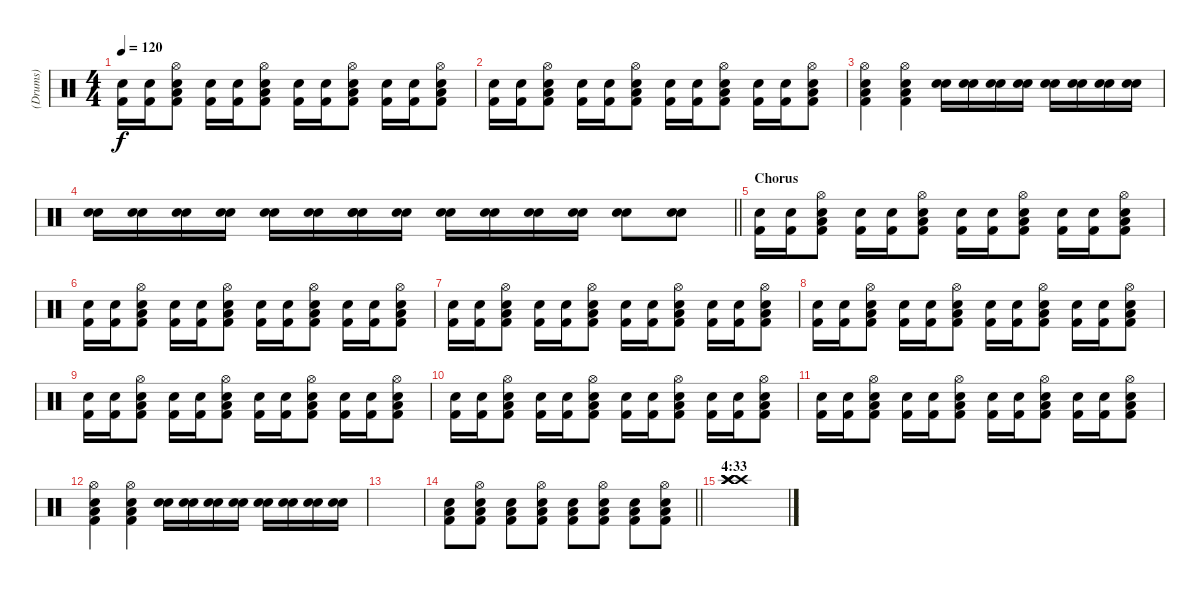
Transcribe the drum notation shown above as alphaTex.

\track ("(Drums)" "(Drums)") {instrument percussion}
\staff {score}
\articulation defaults
\ts (4 4)
\tempo 120
\clef neutral
\ks c
("Kick (hit) 2" "Electric Snare (hit)").16{dy f} ("Kick (hit) 2" "Electric Snare (hit)").16 ("Kick (hit) 2" "Electric Snare (hit)" "Low Floor Tom (hit)" "Hi-Hat (open)").8 ("Kick (hit) 2" "Electric Snare (hit)").16 ("Kick (hit) 2" "Electric Snare (hit)").16 ("Kick (hit) 2" "Electric Snare (hit)" "Low Floor Tom (hit)" "Hi-Hat (open)").8 ("Kick (hit) 2" "Electric Snare (hit)").16 ("Kick (hit) 2" "Electric Snare (hit)").16 ("Kick (hit) 2" "Electric Snare (hit)" "Low Floor Tom (hit)" "Hi-Hat (open)").8 ("Kick (hit) 2" "Electric Snare (hit)").16 ("Kick (hit) 2" "Electric Snare (hit)").16 ("Kick (hit) 2" "Electric Snare (hit)" "Low Floor Tom (hit)" "Hi-Hat (open)").8 |
("Kick (hit) 2" "Electric Snare (hit)").16 ("Kick (hit) 2" "Electric Snare (hit)").16 ("Kick (hit) 2" "Electric Snare (hit)" "Low Floor Tom (hit)" "Hi-Hat (open)").8 ("Kick (hit) 2" "Electric Snare (hit)").16 ("Kick (hit) 2" "Electric Snare (hit)").16 ("Kick (hit) 2" "Electric Snare (hit)" "Low Floor Tom (hit)" "Hi-Hat (open)").8 ("Kick (hit) 2" "Electric Snare (hit)").16 ("Kick (hit) 2" "Electric Snare (hit)").16 ("Kick (hit) 2" "Electric Snare (hit)" "Low Floor Tom (hit)" "Hi-Hat (open)").8 ("Kick (hit) 2" "Electric Snare (hit)").16 ("Kick (hit) 2" "Electric Snare (hit)").16 ("Kick (hit) 2" "Electric Snare (hit)" "Low Floor Tom (hit)" "Hi-Hat (open)").8 |
("Kick (hit) 2" "Electric Snare (hit)" "Low Floor Tom (hit)" "Hi-Hat (open)").4 ("Kick (hit) 2" "Electric Snare (hit)" "Low Floor Tom (hit)" "Hi-Hat (open)").4 ("Electric Snare (hit)" "Electric Snare (hit)").16 ("Electric Snare (hit)" "Electric Snare (hit)").16 ("Electric Snare (hit)" "Electric Snare (hit)").16 ("Electric Snare (hit)" "Electric Snare (hit)").16 ("Electric Snare (hit)" "Electric Snare (hit)").16 ("Electric Snare (hit)" "Electric Snare (hit)").16 ("Electric Snare (hit)" "Electric Snare (hit)").16 ("Electric Snare (hit)" "Electric Snare (hit)").16 |
\barLineRight lightlight
("Electric Snare (hit)" "Electric Snare (hit)").16 ("Electric Snare (hit)" "Electric Snare (hit)").16 ("Electric Snare (hit)" "Electric Snare (hit)").16 ("Electric Snare (hit)" "Electric Snare (hit)").16 ("Electric Snare (hit)" "Electric Snare (hit)").16 ("Electric Snare (hit)" "Electric Snare (hit)").16 ("Electric Snare (hit)" "Electric Snare (hit)" "Electric Snare (hit)").16 ("Electric Snare (hit)" "Electric Snare (hit)").16 ("Electric Snare (hit)" "Electric Snare (hit)").16 ("Electric Snare (hit)" "Electric Snare (hit)").16 ("Electric Snare (hit)" "Electric Snare (hit)").16 ("Electric Snare (hit)" "Electric Snare (hit)").16 ("Electric Snare (hit)" "Electric Snare (hit)").8 ("Electric Snare (hit)" "Electric Snare (hit)").8 |
\section ("" "Chorus")
("Kick (hit) 2" "Electric Snare (hit)").16 ("Kick (hit) 2" "Electric Snare (hit)").16 ("Kick (hit) 2" "Electric Snare (hit)" "Low Floor Tom (hit)" "Hi-Hat (open)").8 ("Kick (hit) 2" "Electric Snare (hit)").16 ("Kick (hit) 2" "Electric Snare (hit)").16 ("Kick (hit) 2" "Electric Snare (hit)" "Low Floor Tom (hit)" "Hi-Hat (open)").8 ("Kick (hit) 2" "Electric Snare (hit)").16 ("Kick (hit) 2" "Electric Snare (hit)").16 ("Kick (hit) 2" "Electric Snare (hit)" "Low Floor Tom (hit)" "Hi-Hat (open)").8 ("Kick (hit) 2" "Electric Snare (hit)").16 ("Kick (hit) 2" "Electric Snare (hit)").16 ("Kick (hit) 2" "Electric Snare (hit)" "Low Floor Tom (hit)" "Hi-Hat (open)").8 |
("Kick (hit) 2" "Electric Snare (hit)").16 ("Kick (hit) 2" "Electric Snare (hit)").16 ("Kick (hit) 2" "Electric Snare (hit)" "Low Floor Tom (hit)" "Hi-Hat (open)").8 ("Kick (hit) 2" "Electric Snare (hit)").16 ("Kick (hit) 2" "Electric Snare (hit)").16 ("Kick (hit) 2" "Electric Snare (hit)" "Low Floor Tom (hit)" "Hi-Hat (open)").8 ("Kick (hit) 2" "Electric Snare (hit)").16 ("Kick (hit) 2" "Electric Snare (hit)").16 ("Kick (hit) 2" "Electric Snare (hit)" "Low Floor Tom (hit)" "Hi-Hat (open)").8 ("Kick (hit) 2" "Electric Snare (hit)").16 ("Kick (hit) 2" "Electric Snare (hit)").16 ("Kick (hit) 2" "Electric Snare (hit)" "Low Floor Tom (hit)" "Hi-Hat (open)").8 |
("Kick (hit) 2" "Electric Snare (hit)").16 ("Kick (hit) 2" "Electric Snare (hit)").16 ("Kick (hit) 2" "Electric Snare (hit)" "Low Floor Tom (hit)" "Hi-Hat (open)").8 ("Kick (hit) 2" "Electric Snare (hit)").16 ("Kick (hit) 2" "Electric Snare (hit)").16 ("Kick (hit) 2" "Electric Snare (hit)" "Low Floor Tom (hit)" "Hi-Hat (open)").8 ("Kick (hit) 2" "Electric Snare (hit)").16 ("Kick (hit) 2" "Electric Snare (hit)").16 ("Kick (hit) 2" "Electric Snare (hit)" "Low Floor Tom (hit)" "Hi-Hat (open)").8 ("Kick (hit) 2" "Electric Snare (hit)").16 ("Kick (hit) 2" "Electric Snare (hit)").16 ("Kick (hit) 2" "Electric Snare (hit)" "Low Floor Tom (hit)" "Hi-Hat (open)").8 |
("Kick (hit) 2" "Electric Snare (hit)").16 ("Kick (hit) 2" "Electric Snare (hit)").16 ("Kick (hit) 2" "Electric Snare (hit)" "Low Floor Tom (hit)" "Hi-Hat (open)").8 ("Kick (hit) 2" "Electric Snare (hit)").16 ("Kick (hit) 2" "Electric Snare (hit)").16 ("Kick (hit) 2" "Electric Snare (hit)" "Low Floor Tom (hit)" "Hi-Hat (open)").8 ("Kick (hit) 2" "Electric Snare (hit)").16 ("Kick (hit) 2" "Electric Snare (hit)").16 ("Kick (hit) 2" "Electric Snare (hit)" "Low Floor Tom (hit)" "Hi-Hat (open)").8 ("Kick (hit) 2" "Electric Snare (hit)").16 ("Kick (hit) 2" "Electric Snare (hit)").16 ("Kick (hit) 2" "Electric Snare (hit)" "Low Floor Tom (hit)" "Hi-Hat (open)").8 |
("Kick (hit) 2" "Electric Snare (hit)").16 ("Kick (hit) 2" "Electric Snare (hit)").16 ("Kick (hit) 2" "Electric Snare (hit)" "Low Floor Tom (hit)" "Hi-Hat (open)").8 ("Kick (hit) 2" "Electric Snare (hit)").16 ("Kick (hit) 2" "Electric Snare (hit)").16 ("Kick (hit) 2" "Electric Snare (hit)" "Low Floor Tom (hit)" "Hi-Hat (open)").8 ("Kick (hit) 2" "Electric Snare (hit)").16 ("Kick (hit) 2" "Electric Snare (hit)").16 ("Kick (hit) 2" "Electric Snare (hit)" "Low Floor Tom (hit)" "Hi-Hat (open)").8 ("Kick (hit) 2" "Electric Snare (hit)").16 ("Kick (hit) 2" "Electric Snare (hit)").16 ("Kick (hit) 2" "Electric Snare (hit)" "Low Floor Tom (hit)" "Hi-Hat (open)").8 |
("Kick (hit) 2" "Electric Snare (hit)").16 ("Kick (hit) 2" "Electric Snare (hit)").16 ("Kick (hit) 2" "Electric Snare (hit)" "Low Floor Tom (hit)" "Hi-Hat (open)").8 ("Kick (hit) 2" "Electric Snare (hit)").16 ("Kick (hit) 2" "Electric Snare (hit)").16 ("Kick (hit) 2" "Electric Snare (hit)" "Low Floor Tom (hit)" "Hi-Hat (open)").8 ("Kick (hit) 2" "Electric Snare (hit)").16 ("Kick (hit) 2" "Electric Snare (hit)").16 ("Kick (hit) 2" "Electric Snare (hit)" "Low Floor Tom (hit)" "Hi-Hat (open)").8 ("Kick (hit) 2" "Electric Snare (hit)").16 ("Kick (hit) 2" "Electric Snare (hit)").16 ("Kick (hit) 2" "Electric Snare (hit)" "Low Floor Tom (hit)" "Hi-Hat (open)").8 |
("Kick (hit) 2" "Electric Snare (hit)").16 ("Kick (hit) 2" "Electric Snare (hit)").16 ("Kick (hit) 2" "Electric Snare (hit)" "Low Floor Tom (hit)" "Hi-Hat (open)").8 ("Kick (hit) 2" "Electric Snare (hit)").16 ("Kick (hit) 2" "Electric Snare (hit)").16 ("Kick (hit) 2" "Electric Snare (hit)" "Low Floor Tom (hit)" "Hi-Hat (open)").8 ("Kick (hit) 2" "Electric Snare (hit)").16 ("Kick (hit) 2" "Electric Snare (hit)").16 ("Kick (hit) 2" "Electric Snare (hit)" "Low Floor Tom (hit)" "Hi-Hat (open)").8 ("Kick (hit) 2" "Electric Snare (hit)").16 ("Kick (hit) 2" "Electric Snare (hit)").16 ("Kick (hit) 2" "Electric Snare (hit)" "Low Floor Tom (hit)" "Hi-Hat (open)").8 |
("Kick (hit) 2" "Electric Snare (hit)" "Low Floor Tom (hit)" "Hi-Hat (open)").4 ("Kick (hit) 2" "Electric Snare (hit)" "Low Floor Tom (hit)" "Hi-Hat (open)").4 ("Electric Snare (hit)" "Electric Snare (hit)").16 ("Electric Snare (hit)" "Electric Snare (hit)").16 ("Electric Snare (hit)" "Electric Snare (hit)").16 ("Electric Snare (hit)" "Electric Snare (hit)").16 ("Electric Snare (hit)" "Electric Snare (hit)").16 ("Electric Snare (hit)" "Electric Snare (hit)").16 ("Electric Snare (hit)" "Electric Snare (hit)").16 ("Electric Snare (hit)" "Electric Snare (hit)").16 |
|
\barLineRight lightlight
("Kick (hit) 2" "Electric Snare (hit)" "Low Floor Tom (hit)").8 ("Kick (hit) 2" "Electric Snare (hit)" "Low Floor Tom (hit)" "Hi-Hat (open)").8 ("Kick (hit) 2" "Electric Snare (hit)" "Low Floor Tom (hit)").8 ("Kick (hit) 2" "Electric Snare (hit)" "Low Floor Tom (hit)" "Hi-Hat (open)").8 ("Kick (hit) 2" "Electric Snare (hit)" "Low Floor Tom (hit)").8 ("Kick (hit) 2" "Electric Snare (hit)" "Low Floor Tom (hit)" "Hi-Hat (open)").8 ("Kick (hit) 2" "Electric Snare (hit)" "Low Floor Tom (hit)").8 ("Kick (hit) 2" "Electric Snare (hit)" "Low Floor Tom (hit)" "Hi-Hat (open)").8 |
\section ("" "4:33")
("Crash high (hit)" "Crash high (hit)" "Crash high (hit)" "Crash high (hit)").1
